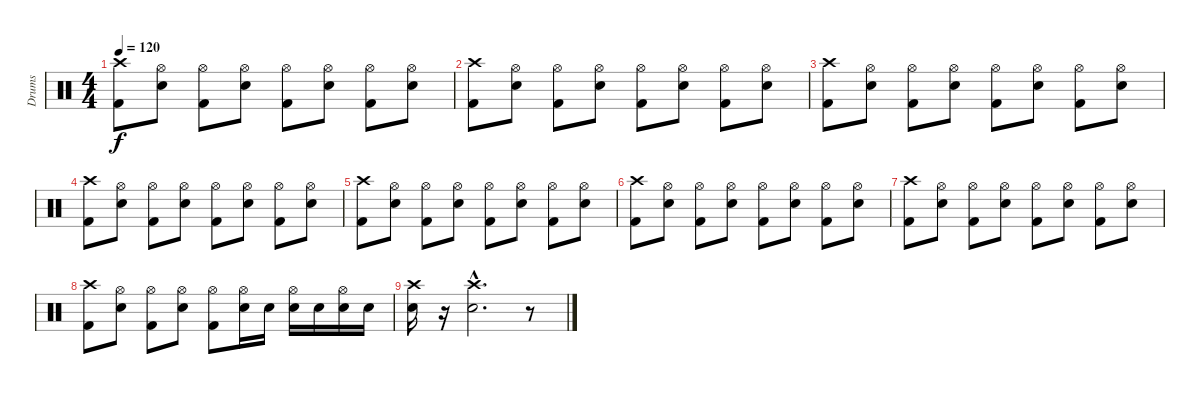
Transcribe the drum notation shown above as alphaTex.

\track ("Drums" "Drums") {instrument percussion}
\staff {score}
\articulation defaults
\ts (4 4)
\tempo 120
\clef neutral
\ks c
("Crash high (hit)" "Kick (hit) 2").8{dy f volume 16} ("Hi-Hat (open)" "Snare (hit) 2").8 ("Hi-Hat (open)" "Kick (hit) 2").8 ("Hi-Hat (open)" "Snare (hit) 2").8 ("Hi-Hat (open)" "Kick (hit) 2").8 ("Hi-Hat (open)" "Snare (hit) 2").8 ("Hi-Hat (open)" "Kick (hit) 2").8 ("Hi-Hat (open)" "Snare (hit) 2").8 |
("Crash high (hit)" "Kick (hit) 2").8{volume 16} ("Hi-Hat (open)" "Snare (hit) 2").8 ("Hi-Hat (open)" "Kick (hit) 2").8 ("Hi-Hat (open)" "Snare (hit) 2").8 ("Hi-Hat (open)" "Kick (hit) 2").8 ("Hi-Hat (open)" "Snare (hit) 2").8 ("Hi-Hat (open)" "Kick (hit) 2").8 ("Hi-Hat (open)" "Snare (hit) 2").8 |
("Crash high (hit)" "Kick (hit) 2").8{volume 16} ("Hi-Hat (open)" "Snare (hit) 2").8 ("Hi-Hat (open)" "Kick (hit) 2").8 ("Hi-Hat (open)" "Snare (hit) 2").8 ("Hi-Hat (open)" "Kick (hit) 2").8 ("Hi-Hat (open)" "Snare (hit) 2").8 ("Hi-Hat (open)" "Kick (hit) 2").8 ("Hi-Hat (open)" "Snare (hit) 2").8 |
("Crash high (hit)" "Kick (hit) 2").8{volume 16} ("Hi-Hat (open)" "Snare (hit) 2").8 ("Hi-Hat (open)" "Kick (hit) 2").8 ("Hi-Hat (open)" "Snare (hit) 2").8 ("Hi-Hat (open)" "Kick (hit) 2").8 ("Hi-Hat (open)" "Snare (hit) 2").8 ("Hi-Hat (open)" "Kick (hit) 2").8 ("Hi-Hat (open)" "Snare (hit) 2").8 |
("Crash high (hit)" "Kick (hit) 2").8{volume 16} ("Hi-Hat (open)" "Snare (hit) 2").8 ("Hi-Hat (open)" "Kick (hit) 2").8 ("Hi-Hat (open)" "Snare (hit) 2").8 ("Hi-Hat (open)" "Kick (hit) 2").8 ("Hi-Hat (open)" "Snare (hit) 2").8 ("Hi-Hat (open)" "Kick (hit) 2").8 ("Hi-Hat (open)" "Snare (hit) 2").8 |
("Crash high (hit)" "Kick (hit) 2").8{volume 16} ("Hi-Hat (open)" "Snare (hit) 2").8 ("Hi-Hat (open)" "Kick (hit) 2").8 ("Hi-Hat (open)" "Snare (hit) 2").8 ("Hi-Hat (open)" "Kick (hit) 2").8 ("Hi-Hat (open)" "Snare (hit) 2").8 ("Hi-Hat (open)" "Kick (hit) 2").8 ("Hi-Hat (open)" "Snare (hit) 2").8 |
("Crash high (hit)" "Kick (hit) 2").8{volume 16} ("Hi-Hat (open)" "Snare (hit) 2").8 ("Hi-Hat (open)" "Kick (hit) 2").8 ("Hi-Hat (open)" "Snare (hit) 2").8 ("Hi-Hat (open)" "Kick (hit) 2").8 ("Hi-Hat (open)" "Snare (hit) 2").8 ("Hi-Hat (open)" "Kick (hit) 2").8 ("Hi-Hat (open)" "Snare (hit) 2").8 |
("Crash high (hit)" "Kick (hit) 2").8{volume 16} ("Hi-Hat (open)" "Snare (hit) 2").8 ("Hi-Hat (open)" "Kick (hit) 2").8 ("Hi-Hat (open)" "Snare (hit) 2").8 ("Hi-Hat (open)" "Kick (hit) 2").8 ("Hi-Hat (open)" "Snare (hit) 2").16 "Snare (hit) 2".16 ("Hi-Hat (open)" "Snare (hit) 2").16 "Snare (hit) 2".16 ("Hi-Hat (open)" "Snare (hit) 2").16 "Snare (hit) 2".16 |
("Crash high (hit)" "Snare (hit) 2").16 r.16 ("Crash high (hit)"{hac} "Snare (hit) 2"{hac}).2{d} r.8
